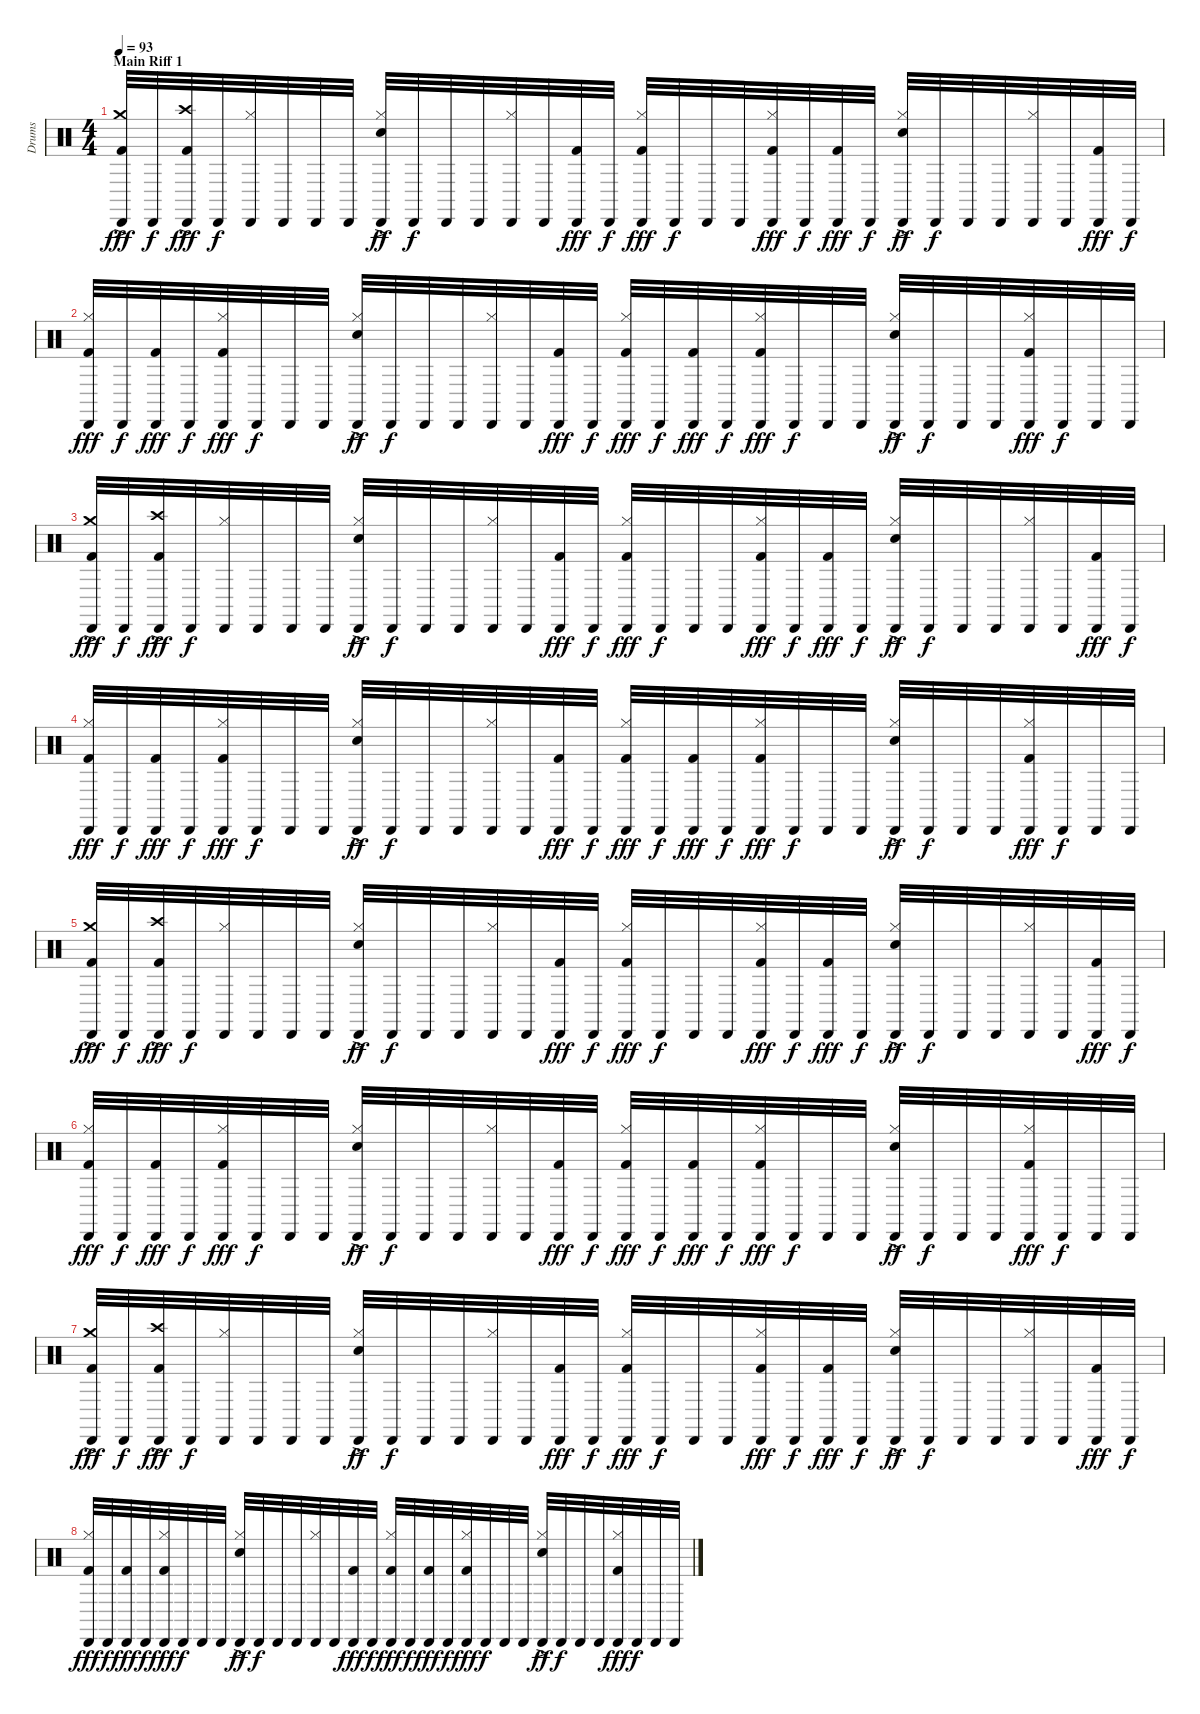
\track ("Drums" "Drums") {instrument percussion}
\staff {score}
\articulation defaults
\ts (4 4)
\section ("" "Main Riff 1")
\tempo 93
\clef neutral
\ks c
("Crash medium (hit)"{ac} "Cabasa (hit)" "Kick (hit) 2").32{dy fff} "Cabasa (hit)".32{dy f} ("Crash high (hit)"{ac} "Cabasa (hit)" "Kick (hit) 2").32{dy fff} "Cabasa (hit)".32{dy f} ("Cabasa (hit)" "Hi-Hat (closed)").32 "Cabasa (hit)".32 "Cabasa (hit)".32 "Cabasa (hit)".32 ("Cabasa (hit)" "Hi-Hat (closed)" "Electric Snare (hit)"{ac}).32{dy ff} "Cabasa (hit)".32{dy f} "Cabasa (hit)".32 "Cabasa (hit)".32 ("Cabasa (hit)" "Hi-Hat (closed)").32 "Cabasa (hit)".32 ("Cabasa (hit)" "Kick (hit) 2").32{dy fff} "Cabasa (hit)".32{dy f} ("Cabasa (hit)" "Hi-Hat (closed)" "Kick (hit) 2").32{dy fff} "Cabasa (hit)".32{dy f} "Cabasa (hit)".32 "Cabasa (hit)".32 ("Cabasa (hit)" "Hi-Hat (closed)" "Kick (hit) 2").32{dy fff} "Cabasa (hit)".32{dy f} ("Cabasa (hit)" "Kick (hit) 2").32{dy fff} "Cabasa (hit)".32{dy f} ("Cabasa (hit)" "Hi-Hat (closed)" "Electric Snare (hit)"{ac}).32{dy ff} "Cabasa (hit)".32{dy f} "Cabasa (hit)".32 "Cabasa (hit)".32 ("Cabasa (hit)" "Hi-Hat (closed)").32 "Cabasa (hit)".32 ("Cabasa (hit)" "Kick (hit) 2").32{dy fff} "Cabasa (hit)".32{dy f} |
("Cabasa (hit)" "Hi-Hat (closed)" "Kick (hit) 2").32{dy fff} "Cabasa (hit)".32{dy f} ("Cabasa (hit)" "Kick (hit) 2").32{dy fff} "Cabasa (hit)".32{dy f} ("Cabasa (hit)" "Hi-Hat (closed)" "Kick (hit) 2").32{dy fff} "Cabasa (hit)".32{dy f} "Cabasa (hit)".32 "Cabasa (hit)".32 ("Cabasa (hit)" "Hi-Hat (closed)" "Electric Snare (hit)"{ac}).32{dy ff} "Cabasa (hit)".32{dy f} "Cabasa (hit)".32 "Cabasa (hit)".32 ("Cabasa (hit)" "Hi-Hat (closed)").32 "Cabasa (hit)".32 ("Cabasa (hit)" "Kick (hit) 2").32{dy fff} "Cabasa (hit)".32{dy f} ("Cabasa (hit)" "Hi-Hat (closed)" "Kick (hit) 2").32{dy fff} "Cabasa (hit)".32{dy f} ("Cabasa (hit)" "Kick (hit) 2").32{dy fff} "Cabasa (hit)".32{dy f} ("Cabasa (hit)" "Hi-Hat (closed)" "Kick (hit) 2").32{dy fff} "Cabasa (hit)".32{dy f} "Cabasa (hit)".32 "Cabasa (hit)".32 ("Cabasa (hit)" "Hi-Hat (closed)" "Electric Snare (hit)"{ac}).32{dy ff} "Cabasa (hit)".32{dy f} "Cabasa (hit)".32 "Cabasa (hit)".32 ("Cabasa (hit)" "Hi-Hat (closed)" "Kick (hit) 2").32{dy fff} "Cabasa (hit)".32{dy f} "Cabasa (hit)".32 "Cabasa (hit)".32 |
("Crash medium (hit)"{ac} "Cabasa (hit)" "Kick (hit) 2").32{dy fff} "Cabasa (hit)".32{dy f} ("Crash high (hit)"{ac} "Cabasa (hit)" "Kick (hit) 2").32{dy fff} "Cabasa (hit)".32{dy f} ("Cabasa (hit)" "Hi-Hat (closed)").32 "Cabasa (hit)".32 "Cabasa (hit)".32 "Cabasa (hit)".32 ("Cabasa (hit)" "Hi-Hat (closed)" "Electric Snare (hit)"{ac}).32{dy ff} "Cabasa (hit)".32{dy f} "Cabasa (hit)".32 "Cabasa (hit)".32 ("Cabasa (hit)" "Hi-Hat (closed)").32 "Cabasa (hit)".32 ("Cabasa (hit)" "Kick (hit) 2").32{dy fff} "Cabasa (hit)".32{dy f} ("Cabasa (hit)" "Hi-Hat (closed)" "Kick (hit) 2").32{dy fff} "Cabasa (hit)".32{dy f} "Cabasa (hit)".32 "Cabasa (hit)".32 ("Cabasa (hit)" "Hi-Hat (closed)" "Kick (hit) 2").32{dy fff} "Cabasa (hit)".32{dy f} ("Cabasa (hit)" "Kick (hit) 2").32{dy fff} "Cabasa (hit)".32{dy f} ("Cabasa (hit)" "Hi-Hat (closed)" "Electric Snare (hit)"{ac}).32{dy ff} "Cabasa (hit)".32{dy f} "Cabasa (hit)".32 "Cabasa (hit)".32 ("Cabasa (hit)" "Hi-Hat (closed)").32 "Cabasa (hit)".32 ("Cabasa (hit)" "Kick (hit) 2").32{dy fff} "Cabasa (hit)".32{dy f} |
("Cabasa (hit)" "Hi-Hat (closed)" "Kick (hit) 2").32{dy fff} "Cabasa (hit)".32{dy f} ("Cabasa (hit)" "Kick (hit) 2").32{dy fff} "Cabasa (hit)".32{dy f} ("Cabasa (hit)" "Hi-Hat (closed)" "Kick (hit) 2").32{dy fff} "Cabasa (hit)".32{dy f} "Cabasa (hit)".32 "Cabasa (hit)".32 ("Cabasa (hit)" "Hi-Hat (closed)" "Electric Snare (hit)"{ac}).32{dy ff} "Cabasa (hit)".32{dy f} "Cabasa (hit)".32 "Cabasa (hit)".32 ("Cabasa (hit)" "Hi-Hat (closed)").32 "Cabasa (hit)".32 ("Cabasa (hit)" "Kick (hit) 2").32{dy fff} "Cabasa (hit)".32{dy f} ("Cabasa (hit)" "Hi-Hat (closed)" "Kick (hit) 2").32{dy fff} "Cabasa (hit)".32{dy f} ("Cabasa (hit)" "Kick (hit) 2").32{dy fff} "Cabasa (hit)".32{dy f} ("Cabasa (hit)" "Hi-Hat (closed)" "Kick (hit) 2").32{dy fff} "Cabasa (hit)".32{dy f} "Cabasa (hit)".32 "Cabasa (hit)".32 ("Cabasa (hit)" "Hi-Hat (closed)" "Electric Snare (hit)"{ac}).32{dy ff} "Cabasa (hit)".32{dy f} "Cabasa (hit)".32 "Cabasa (hit)".32 ("Cabasa (hit)" "Hi-Hat (closed)" "Kick (hit) 2").32{dy fff} "Cabasa (hit)".32{dy f} "Cabasa (hit)".32 "Cabasa (hit)".32 |
("Crash medium (hit)"{ac} "Cabasa (hit)" "Kick (hit) 2").32{dy fff} "Cabasa (hit)".32{dy f} ("Crash high (hit)"{ac} "Cabasa (hit)" "Kick (hit) 2").32{dy fff} "Cabasa (hit)".32{dy f} ("Cabasa (hit)" "Hi-Hat (closed)").32 "Cabasa (hit)".32 "Cabasa (hit)".32 "Cabasa (hit)".32 ("Cabasa (hit)" "Hi-Hat (closed)" "Electric Snare (hit)"{ac}).32{dy ff} "Cabasa (hit)".32{dy f} "Cabasa (hit)".32 "Cabasa (hit)".32 ("Cabasa (hit)" "Hi-Hat (closed)").32 "Cabasa (hit)".32 ("Cabasa (hit)" "Kick (hit) 2").32{dy fff} "Cabasa (hit)".32{dy f} ("Cabasa (hit)" "Hi-Hat (closed)" "Kick (hit) 2").32{dy fff} "Cabasa (hit)".32{dy f} "Cabasa (hit)".32 "Cabasa (hit)".32 ("Cabasa (hit)" "Hi-Hat (closed)" "Kick (hit) 2").32{dy fff} "Cabasa (hit)".32{dy f} ("Cabasa (hit)" "Kick (hit) 2").32{dy fff} "Cabasa (hit)".32{dy f} ("Cabasa (hit)" "Hi-Hat (closed)" "Electric Snare (hit)"{ac}).32{dy ff} "Cabasa (hit)".32{dy f} "Cabasa (hit)".32 "Cabasa (hit)".32 ("Cabasa (hit)" "Hi-Hat (closed)").32 "Cabasa (hit)".32 ("Cabasa (hit)" "Kick (hit) 2").32{dy fff} "Cabasa (hit)".32{dy f} |
("Cabasa (hit)" "Hi-Hat (closed)" "Kick (hit) 2").32{dy fff} "Cabasa (hit)".32{dy f} ("Cabasa (hit)" "Kick (hit) 2").32{dy fff} "Cabasa (hit)".32{dy f} ("Cabasa (hit)" "Hi-Hat (closed)" "Kick (hit) 2").32{dy fff} "Cabasa (hit)".32{dy f} "Cabasa (hit)".32 "Cabasa (hit)".32 ("Cabasa (hit)" "Hi-Hat (closed)" "Electric Snare (hit)"{ac}).32{dy ff} "Cabasa (hit)".32{dy f} "Cabasa (hit)".32 "Cabasa (hit)".32 ("Cabasa (hit)" "Hi-Hat (closed)").32 "Cabasa (hit)".32 ("Cabasa (hit)" "Kick (hit) 2").32{dy fff} "Cabasa (hit)".32{dy f} ("Cabasa (hit)" "Hi-Hat (closed)" "Kick (hit) 2").32{dy fff} "Cabasa (hit)".32{dy f} ("Cabasa (hit)" "Kick (hit) 2").32{dy fff} "Cabasa (hit)".32{dy f} ("Cabasa (hit)" "Hi-Hat (closed)" "Kick (hit) 2").32{dy fff} "Cabasa (hit)".32{dy f} "Cabasa (hit)".32 "Cabasa (hit)".32 ("Cabasa (hit)" "Hi-Hat (closed)" "Electric Snare (hit)"{ac}).32{dy ff} "Cabasa (hit)".32{dy f} "Cabasa (hit)".32 "Cabasa (hit)".32 ("Cabasa (hit)" "Hi-Hat (closed)" "Kick (hit) 2").32{dy fff} "Cabasa (hit)".32{dy f} "Cabasa (hit)".32 "Cabasa (hit)".32 |
("Crash medium (hit)"{ac} "Cabasa (hit)" "Kick (hit) 2").32{dy fff} "Cabasa (hit)".32{dy f} ("Crash high (hit)"{ac} "Cabasa (hit)" "Kick (hit) 2").32{dy fff} "Cabasa (hit)".32{dy f} ("Cabasa (hit)" "Hi-Hat (closed)").32 "Cabasa (hit)".32 "Cabasa (hit)".32 "Cabasa (hit)".32 ("Cabasa (hit)" "Hi-Hat (closed)" "Electric Snare (hit)"{ac}).32{dy ff} "Cabasa (hit)".32{dy f} "Cabasa (hit)".32 "Cabasa (hit)".32 ("Cabasa (hit)" "Hi-Hat (closed)").32 "Cabasa (hit)".32 ("Cabasa (hit)" "Kick (hit) 2").32{dy fff} "Cabasa (hit)".32{dy f} ("Cabasa (hit)" "Hi-Hat (closed)" "Kick (hit) 2").32{dy fff} "Cabasa (hit)".32{dy f} "Cabasa (hit)".32 "Cabasa (hit)".32 ("Cabasa (hit)" "Hi-Hat (closed)" "Kick (hit) 2").32{dy fff} "Cabasa (hit)".32{dy f} ("Cabasa (hit)" "Kick (hit) 2").32{dy fff} "Cabasa (hit)".32{dy f} ("Cabasa (hit)" "Hi-Hat (closed)" "Electric Snare (hit)"{ac}).32{dy ff} "Cabasa (hit)".32{dy f} "Cabasa (hit)".32 "Cabasa (hit)".32 ("Cabasa (hit)" "Hi-Hat (closed)").32 "Cabasa (hit)".32 ("Cabasa (hit)" "Kick (hit) 2").32{dy fff} "Cabasa (hit)".32{dy f} |
("Cabasa (hit)" "Hi-Hat (closed)" "Kick (hit) 2").32{dy fff} "Cabasa (hit)".32{dy f} ("Cabasa (hit)" "Kick (hit) 2").32{dy fff} "Cabasa (hit)".32{dy f} ("Cabasa (hit)" "Hi-Hat (closed)" "Kick (hit) 2").32{dy fff} "Cabasa (hit)".32{dy f} "Cabasa (hit)".32 "Cabasa (hit)".32 ("Cabasa (hit)" "Hi-Hat (closed)" "Electric Snare (hit)"{ac}).32{dy ff} "Cabasa (hit)".32{dy f} "Cabasa (hit)".32 "Cabasa (hit)".32 ("Cabasa (hit)" "Hi-Hat (closed)").32 "Cabasa (hit)".32 ("Cabasa (hit)" "Kick (hit) 2").32{dy fff} "Cabasa (hit)".32{dy f} ("Cabasa (hit)" "Hi-Hat (closed)" "Kick (hit) 2").32{dy fff} "Cabasa (hit)".32{dy f} ("Cabasa (hit)" "Kick (hit) 2").32{dy fff} "Cabasa (hit)".32{dy f} ("Cabasa (hit)" "Hi-Hat (closed)" "Kick (hit) 2").32{dy fff} "Cabasa (hit)".32{dy f} "Cabasa (hit)".32 "Cabasa (hit)".32 ("Cabasa (hit)" "Hi-Hat (closed)" "Electric Snare (hit)"{ac}).32{dy ff} "Cabasa (hit)".32{dy f} "Cabasa (hit)".32 "Cabasa (hit)".32 ("Cabasa (hit)" "Hi-Hat (closed)" "Kick (hit) 2").32{dy fff} "Cabasa (hit)".32{dy f} "Cabasa (hit)".32 "Cabasa (hit)".32
